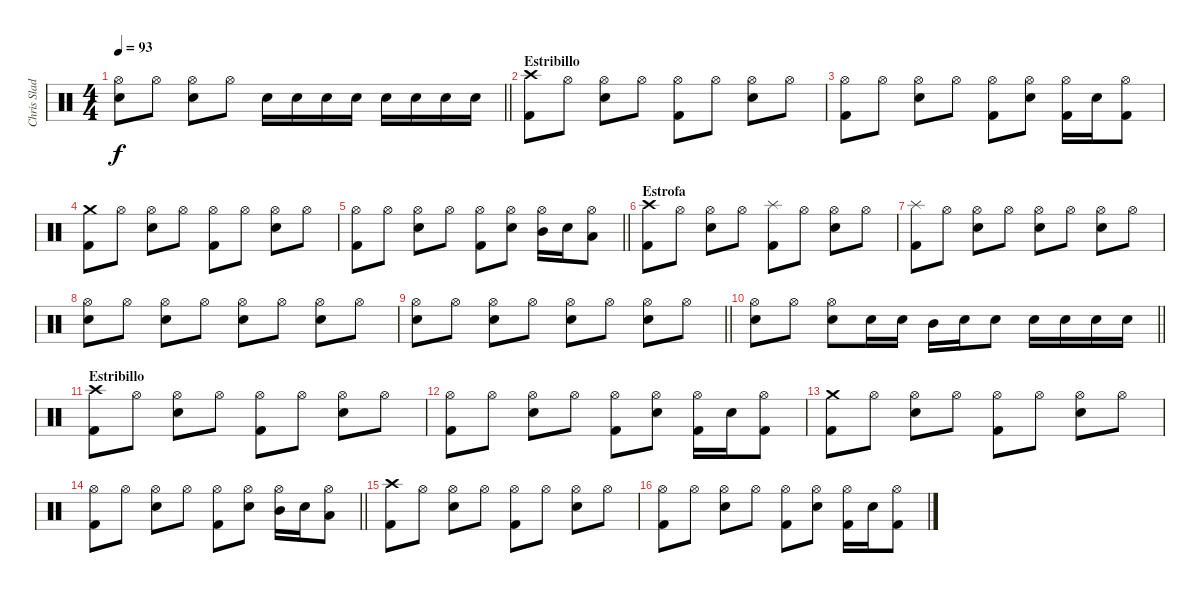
\track ("Chris Slade" "Chris Slad") {instrument percussion}
\staff {score}
\articulation defaults
\ts (4 4)
\tempo 93
\clef neutral
\barLineRight lightlight
\ks c
("Snare (hit) 2" "Hi-Hat (open)").8{dy f} "Hi-Hat (open)".8 ("Snare (hit) 2" "Hi-Hat (open)").8 "Hi-Hat (open)".8 "Snare (hit) 2".16 "Snare (hit) 2".16 "Snare (hit) 2".16 "Snare (hit) 2".16 "Snare (hit) 2".16 "Snare (hit) 2".16 "Snare (hit) 2".16 "Snare (hit) 2".16 |
\section ("" "Estribillo")
("Kick (hit) 2" "Crash high (hit)").8 "Hi-Hat (open)".8 ("Snare (hit) 2" "Hi-Hat (open)").8 "Hi-Hat (open)".8 ("Kick (hit) 2" "Hi-Hat (open)").8 "Hi-Hat (open)".8 ("Snare (hit) 2" "Hi-Hat (open)").8 "Hi-Hat (open)".8 |
("Kick (hit) 2" "Hi-Hat (open)").8 "Hi-Hat (open)".8 ("Snare (hit) 2" "Hi-Hat (open)").8 "Hi-Hat (open)".8 ("Kick (hit) 2" "Hi-Hat (open)").8 ("Snare (hit) 2" "Hi-Hat (open)").8 ("Kick (hit) 2" "Hi-Hat (open)").16 "Snare (hit) 2".16 ("Kick (hit) 2" "Hi-Hat (open)").8 |
("Kick (hit) 2" "Crash medium (hit)").8 "Hi-Hat (open)".8 ("Snare (hit) 2" "Hi-Hat (open)").8 "Hi-Hat (open)".8 ("Kick (hit) 2" "Hi-Hat (open)").8 "Hi-Hat (open)".8 ("Snare (hit) 2" "Hi-Hat (open)").8 "Hi-Hat (open)".8 |
\barLineRight lightlight
("Kick (hit) 2" "Hi-Hat (open)").8 "Hi-Hat (open)".8 ("Snare (hit) 2" "Hi-Hat (open)").8 "Hi-Hat (open)".8 ("Kick (hit) 2" "Hi-Hat (open)").8 ("Snare (hit) 2" "Hi-Hat (open)").8 ("Mid Tom (hit)" "Hi-Hat (open)").16 "Snare (hit) 2".16 ("Low Tom (hit)" "Hi-Hat (open)").8 |
\section ("" "Estrofa")
("Kick (hit) 2" "Crash high (hit)").8 "Hi-Hat (open)".8 ("Snare (hit) 2" "Hi-Hat (open)").8 "Hi-Hat (open)".8 ("Kick (hit) 2" "Splash (hit)").8 "Hi-Hat (open)".8 ("Snare (hit) 2" "Hi-Hat (open)").8 "Hi-Hat (open)".8 |
("Kick (hit) 2" "Splash (hit)").8 "Hi-Hat (open)".8 ("Snare (hit) 2" "Hi-Hat (open)").8 "Hi-Hat (open)".8 ("Snare (hit) 2" "Hi-Hat (open)").8 "Hi-Hat (open)".8 ("Snare (hit) 2" "Hi-Hat (open)").8 "Hi-Hat (open)".8 |
("Snare (hit) 2" "Hi-Hat (open)").8 "Hi-Hat (open)".8 ("Snare (hit) 2" "Hi-Hat (open)").8 "Hi-Hat (open)".8 ("Snare (hit) 2" "Hi-Hat (open)").8 "Hi-Hat (open)".8 ("Snare (hit) 2" "Hi-Hat (open)").8 "Hi-Hat (open)".8 |
\barLineRight lightlight
("Snare (hit) 2" "Hi-Hat (open)").8 "Hi-Hat (open)".8 ("Snare (hit) 2" "Hi-Hat (open)").8 "Hi-Hat (open)".8 ("Snare (hit) 2" "Hi-Hat (open)").8 "Hi-Hat (open)".8 ("Snare (hit) 2" "Hi-Hat (open)").8 "Hi-Hat (open)".8 |
\barLineRight lightlight
("Snare (hit) 2" "Hi-Hat (open)").8 "Hi-Hat (open)".8 ("Snare (hit) 2" "Hi-Hat (open)").8 "Snare (hit) 2".16 "Snare (hit) 2".16 "Mid Tom (hit)".16 "Snare (hit) 2".16 "Snare (hit) 2".8 "Snare (hit) 2".16 "Snare (hit) 2".16 "Snare (hit) 2".16 "Snare (hit) 2".16 |
\section ("" "Estribillo")
("Kick (hit) 2" "Crash high (hit)").8 "Hi-Hat (open)".8 ("Snare (hit) 2" "Hi-Hat (open)").8 "Hi-Hat (open)".8 ("Kick (hit) 2" "Hi-Hat (open)").8 "Hi-Hat (open)".8 ("Snare (hit) 2" "Hi-Hat (open)").8 "Hi-Hat (open)".8 |
("Kick (hit) 2" "Hi-Hat (open)").8 "Hi-Hat (open)".8 ("Snare (hit) 2" "Hi-Hat (open)").8 "Hi-Hat (open)".8 ("Kick (hit) 2" "Hi-Hat (open)").8 ("Snare (hit) 2" "Hi-Hat (open)").8 ("Kick (hit) 2" "Hi-Hat (open)").16 "Snare (hit) 2".16 ("Kick (hit) 2" "Hi-Hat (open)").8 |
("Kick (hit) 2" "Crash medium (hit)").8 "Hi-Hat (open)".8 ("Snare (hit) 2" "Hi-Hat (open)").8 "Hi-Hat (open)".8 ("Kick (hit) 2" "Hi-Hat (open)").8 "Hi-Hat (open)".8 ("Snare (hit) 2" "Hi-Hat (open)").8 "Hi-Hat (open)".8 |
\barLineRight lightlight
("Kick (hit) 2" "Hi-Hat (open)").8 "Hi-Hat (open)".8 ("Snare (hit) 2" "Hi-Hat (open)").8 "Hi-Hat (open)".8 ("Kick (hit) 2" "Hi-Hat (open)").8 ("Snare (hit) 2" "Hi-Hat (open)").8 ("Mid Tom (hit)" "Hi-Hat (open)").16 "Snare (hit) 2".16 ("Low Tom (hit)" "Hi-Hat (open)").8 |
("Kick (hit) 2" "Crash high (hit)").8 "Hi-Hat (open)".8 ("Snare (hit) 2" "Hi-Hat (open)").8 "Hi-Hat (open)".8 ("Kick (hit) 2" "Hi-Hat (open)").8 "Hi-Hat (open)".8 ("Snare (hit) 2" "Hi-Hat (open)").8 "Hi-Hat (open)".8 |
("Kick (hit) 2" "Hi-Hat (open)").8 "Hi-Hat (open)".8 ("Snare (hit) 2" "Hi-Hat (open)").8 "Hi-Hat (open)".8 ("Kick (hit) 2" "Hi-Hat (open)").8 ("Snare (hit) 2" "Hi-Hat (open)").8 ("Kick (hit) 2" "Hi-Hat (open)").16 "Snare (hit) 2".16 ("Kick (hit) 2" "Hi-Hat (open)").8
